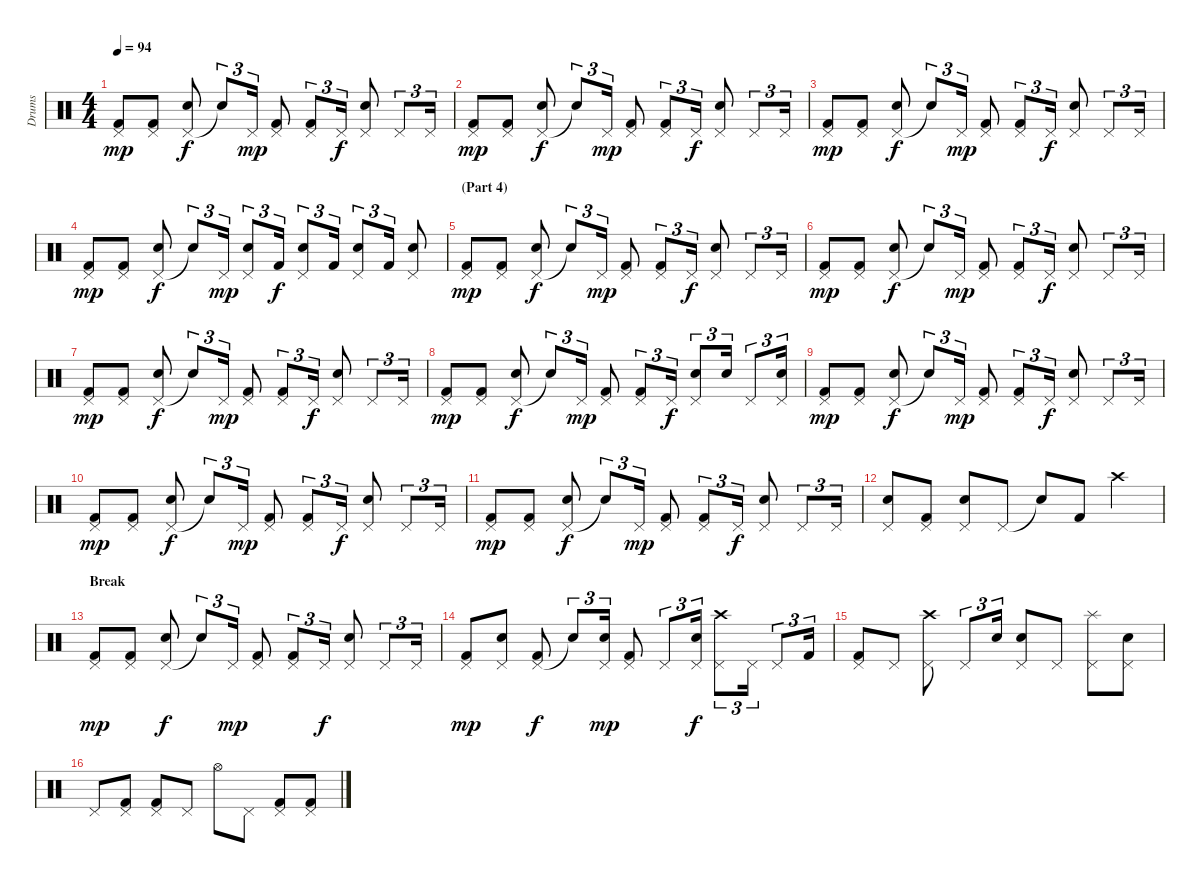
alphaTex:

\track ("Drums" "Drums") {instrument percussion}
\staff {score}
\articulation defaults
\ts (4 4)
\tempo 94
\clef neutral
\ks c
("Pedal Hi-Hat (hit)" "Kick (hit) 2").8{dy mp} ("Pedal Hi-Hat (hit)" "Kick (hit) 2").8 ("Pedal Hi-Hat (hit)" "Electric Snare (hit)").8{dy f} "Snare (hit)"{t}.8{tu (3 2)} "Pedal Hi-Hat (hit)".16{tu (3 2) dy mp} ("Pedal Hi-Hat (hit)" "Kick (hit) 2").8 ("Pedal Hi-Hat (hit)" "Kick (hit) 2").8{tu (3 2)} "Pedal Hi-Hat (hit)".16{tu (3 2) dy f} ("Pedal Hi-Hat (hit)" "Electric Snare (hit)").8 "Pedal Hi-Hat (hit)".8{tu (3 2)} "Pedal Hi-Hat (hit)".16{tu (3 2)} |
("Pedal Hi-Hat (hit)" "Kick (hit) 2").8{dy mp} ("Pedal Hi-Hat (hit)" "Kick (hit) 2").8 ("Pedal Hi-Hat (hit)" "Electric Snare (hit)").8{dy f} "Snare (hit)"{t}.8{tu (3 2)} "Pedal Hi-Hat (hit)".16{tu (3 2) dy mp} ("Pedal Hi-Hat (hit)" "Kick (hit) 2").8 ("Pedal Hi-Hat (hit)" "Kick (hit) 2").8{tu (3 2)} "Pedal Hi-Hat (hit)".16{tu (3 2) dy f} ("Pedal Hi-Hat (hit)" "Electric Snare (hit)").8 "Pedal Hi-Hat (hit)".8{tu (3 2)} "Pedal Hi-Hat (hit)".16{tu (3 2)} |
("Pedal Hi-Hat (hit)" "Kick (hit) 2").8{dy mp} ("Pedal Hi-Hat (hit)" "Kick (hit) 2").8 ("Pedal Hi-Hat (hit)" "Electric Snare (hit)").8{dy f} "Snare (hit)"{t}.8{tu (3 2)} "Pedal Hi-Hat (hit)".16{tu (3 2) dy mp} ("Pedal Hi-Hat (hit)" "Kick (hit) 2").8 ("Pedal Hi-Hat (hit)" "Kick (hit) 2").8{tu (3 2)} "Pedal Hi-Hat (hit)".16{tu (3 2) dy f} ("Pedal Hi-Hat (hit)" "Electric Snare (hit)").8 "Pedal Hi-Hat (hit)".8{tu (3 2)} "Pedal Hi-Hat (hit)".16{tu (3 2)} |
("Pedal Hi-Hat (hit)" "Kick (hit) 2").8{dy mp} ("Pedal Hi-Hat (hit)" "Kick (hit) 2").8 ("Pedal Hi-Hat (hit)" "Electric Snare (hit)").8{dy f} "Snare (hit)"{t}.8{tu (3 2)} "Pedal Hi-Hat (hit)".16{tu (3 2) dy mp} ("Pedal Hi-Hat (hit)" "Electric Snare (hit)").8{tu (3 2)} "Kick (hit) 2".16{tu (3 2) dy f} ("Pedal Hi-Hat (hit)" "Electric Snare (hit)").8{tu (3 2)} "Kick (hit) 2".16{tu (3 2)} ("Pedal Hi-Hat (hit)" "Electric Snare (hit)").8{tu (3 2)} "Kick (hit) 2".16{tu (3 2)} ("Pedal Hi-Hat (hit)" "Electric Snare (hit)").8 |
\section ("" "(Part 4)")
("Pedal Hi-Hat (hit)" "Kick (hit) 2").8{dy mp} ("Pedal Hi-Hat (hit)" "Kick (hit) 2").8 ("Pedal Hi-Hat (hit)" "Electric Snare (hit)").8{dy f} "Snare (hit)"{t}.8{tu (3 2)} "Pedal Hi-Hat (hit)".16{tu (3 2) dy mp} ("Pedal Hi-Hat (hit)" "Kick (hit) 2").8 ("Pedal Hi-Hat (hit)" "Kick (hit) 2").8{tu (3 2)} "Pedal Hi-Hat (hit)".16{tu (3 2) dy f} ("Pedal Hi-Hat (hit)" "Electric Snare (hit)").8 "Pedal Hi-Hat (hit)".8{tu (3 2)} "Pedal Hi-Hat (hit)".16{tu (3 2)} |
("Pedal Hi-Hat (hit)" "Kick (hit) 2").8{dy mp} ("Pedal Hi-Hat (hit)" "Kick (hit) 2").8 ("Pedal Hi-Hat (hit)" "Electric Snare (hit)").8{dy f} "Snare (hit)"{t}.8{tu (3 2)} "Pedal Hi-Hat (hit)".16{tu (3 2) dy mp} ("Pedal Hi-Hat (hit)" "Kick (hit) 2").8 ("Pedal Hi-Hat (hit)" "Kick (hit) 2").8{tu (3 2)} "Pedal Hi-Hat (hit)".16{tu (3 2) dy f} ("Pedal Hi-Hat (hit)" "Electric Snare (hit)").8 "Pedal Hi-Hat (hit)".8{tu (3 2)} "Pedal Hi-Hat (hit)".16{tu (3 2)} |
("Pedal Hi-Hat (hit)" "Kick (hit) 2").8{dy mp} ("Pedal Hi-Hat (hit)" "Kick (hit) 2").8 ("Pedal Hi-Hat (hit)" "Electric Snare (hit)").8{dy f} "Snare (hit)"{t}.8{tu (3 2)} "Pedal Hi-Hat (hit)".16{tu (3 2) dy mp} ("Pedal Hi-Hat (hit)" "Kick (hit) 2").8 ("Pedal Hi-Hat (hit)" "Kick (hit) 2").8{tu (3 2)} "Pedal Hi-Hat (hit)".16{tu (3 2) dy f} ("Pedal Hi-Hat (hit)" "Electric Snare (hit)").8 "Pedal Hi-Hat (hit)".8{tu (3 2)} "Pedal Hi-Hat (hit)".16{tu (3 2)} |
("Pedal Hi-Hat (hit)" "Kick (hit) 2").8{dy mp} ("Pedal Hi-Hat (hit)" "Kick (hit) 2").8 ("Pedal Hi-Hat (hit)" "Electric Snare (hit)").8{dy f} "Snare (hit)"{t}.8{tu (3 2)} "Pedal Hi-Hat (hit)".16{tu (3 2) dy mp} ("Pedal Hi-Hat (hit)" "Kick (hit) 2").8 ("Pedal Hi-Hat (hit)" "Kick (hit) 2").8{tu (3 2)} "Pedal Hi-Hat (hit)".16{tu (3 2) dy f} ("Pedal Hi-Hat (hit)" "Electric Snare (hit)").8{tu (3 2)} "Electric Snare (hit)".16{tu (3 2)} "Pedal Hi-Hat (hit)".8{tu (3 2)} ("Pedal Hi-Hat (hit)" "Electric Snare (hit)").16{tu (3 2)} |
("Pedal Hi-Hat (hit)" "Kick (hit) 2").8{dy mp} ("Pedal Hi-Hat (hit)" "Kick (hit) 2").8 ("Pedal Hi-Hat (hit)" "Electric Snare (hit)").8{dy f} "Snare (hit)"{t}.8{tu (3 2)} "Pedal Hi-Hat (hit)".16{tu (3 2) dy mp} ("Pedal Hi-Hat (hit)" "Kick (hit) 2").8 ("Pedal Hi-Hat (hit)" "Kick (hit) 2").8{tu (3 2)} "Pedal Hi-Hat (hit)".16{tu (3 2) dy f} ("Pedal Hi-Hat (hit)" "Electric Snare (hit)").8 "Pedal Hi-Hat (hit)".8{tu (3 2)} "Pedal Hi-Hat (hit)".16{tu (3 2)} |
("Pedal Hi-Hat (hit)" "Kick (hit) 2").8{dy mp} ("Pedal Hi-Hat (hit)" "Kick (hit) 2").8 ("Pedal Hi-Hat (hit)" "Electric Snare (hit)").8{dy f} "Snare (hit)"{t}.8{tu (3 2)} "Pedal Hi-Hat (hit)".16{tu (3 2) dy mp} ("Pedal Hi-Hat (hit)" "Kick (hit) 2").8 ("Pedal Hi-Hat (hit)" "Kick (hit) 2").8{tu (3 2)} "Pedal Hi-Hat (hit)".16{tu (3 2) dy f} ("Pedal Hi-Hat (hit)" "Electric Snare (hit)").8 "Pedal Hi-Hat (hit)".8{tu (3 2)} "Pedal Hi-Hat (hit)".16{tu (3 2)} |
("Pedal Hi-Hat (hit)" "Kick (hit) 2").8{dy mp} ("Pedal Hi-Hat (hit)" "Kick (hit) 2").8 ("Pedal Hi-Hat (hit)" "Electric Snare (hit)").8{dy f} "Snare (hit)"{t}.8{tu (3 2)} "Pedal Hi-Hat (hit)".16{tu (3 2) dy mp} ("Pedal Hi-Hat (hit)" "Kick (hit) 2").8 ("Pedal Hi-Hat (hit)" "Kick (hit) 2").8{tu (3 2)} "Pedal Hi-Hat (hit)".16{tu (3 2) dy f} ("Pedal Hi-Hat (hit)" "Electric Snare (hit)").8 "Pedal Hi-Hat (hit)".8{tu (3 2)} "Pedal Hi-Hat (hit)".16{tu (3 2)} |
("Pedal Hi-Hat (hit)" "Electric Snare (hit)").8 ("Pedal Hi-Hat (hit)" "Kick (hit) 2").8 ("Pedal Hi-Hat (hit)" "Electric Snare (hit)").8 "Pedal Hi-Hat (hit)".8 "Snare (hit)"{t}.8 "Kick (hit) 2".8 "Crash high (hit)".4 |
\section ("" "Break")
("Pedal Hi-Hat (hit)" "Kick (hit) 2").8{dy mp} ("Pedal Hi-Hat (hit)" "Kick (hit) 2").8 ("Pedal Hi-Hat (hit)" "Electric Snare (hit)").8{dy f} "Snare (hit)"{t}.8{tu (3 2)} "Pedal Hi-Hat (hit)".16{tu (3 2) dy mp} ("Pedal Hi-Hat (hit)" "Kick (hit) 2").8 ("Pedal Hi-Hat (hit)" "Kick (hit) 2").8{tu (3 2)} "Pedal Hi-Hat (hit)".16{tu (3 2) dy f} ("Pedal Hi-Hat (hit)" "Electric Snare (hit)").8 "Pedal Hi-Hat (hit)".8{tu (3 2)} "Pedal Hi-Hat (hit)".16{tu (3 2)} |
("Pedal Hi-Hat (hit)" "Kick (hit) 2").8{dy mp} ("Pedal Hi-Hat (hit)" "Electric Snare (hit)").8 ("Pedal Hi-Hat (hit)" "Kick (hit) 2").8{dy f} "Snare (hit)"{t}.8{tu (3 2)} ("Pedal Hi-Hat (hit)" "Electric Snare (hit)").16{tu (3 2) dy mp} ("Pedal Hi-Hat (hit)" "Kick (hit) 2").8 "Pedal Hi-Hat (hit)".8{tu (3 2)} ("Pedal Hi-Hat (hit)" "Electric Snare (hit)").16{tu (3 2) dy f} ("Pedal Hi-Hat (hit)" "Crash high (hit)").8{tu (3 2)} "Pedal Hi-Hat (hit)".16{tu (3 2)} "Pedal Hi-Hat (hit)".8{tu (3 2)} "Kick (hit) 2".16{tu (3 2)} |
("Pedal Hi-Hat (hit)" "Kick (hit) 2").8 "Pedal Hi-Hat (hit)".8 ("Pedal Hi-Hat (hit)" "Crash high (hit)").8 "Pedal Hi-Hat (hit)".8{tu (3 2)} "Electric Snare (hit)".16{tu (3 2)} ("Pedal Hi-Hat (hit)" "Electric Snare (hit)").8 "Pedal Hi-Hat (hit)".8 ("Pedal Hi-Hat (hit)" "Splash (hit)").8 ("Pedal Hi-Hat (hit)" "Electric Snare (hit)").8 |
"Pedal Hi-Hat (hit)".8 ("Pedal Hi-Hat (hit)" "Kick (hit) 2").8 ("Pedal Hi-Hat (hit)" "Kick (hit) 2").8 "Pedal Hi-Hat (hit)".8 "Hi-Hat (open)".8 "Pedal Hi-Hat (hit)".8 ("Pedal Hi-Hat (hit)" "Kick (hit) 2").8 ("Pedal Hi-Hat (hit)" "Kick (hit) 2").8
